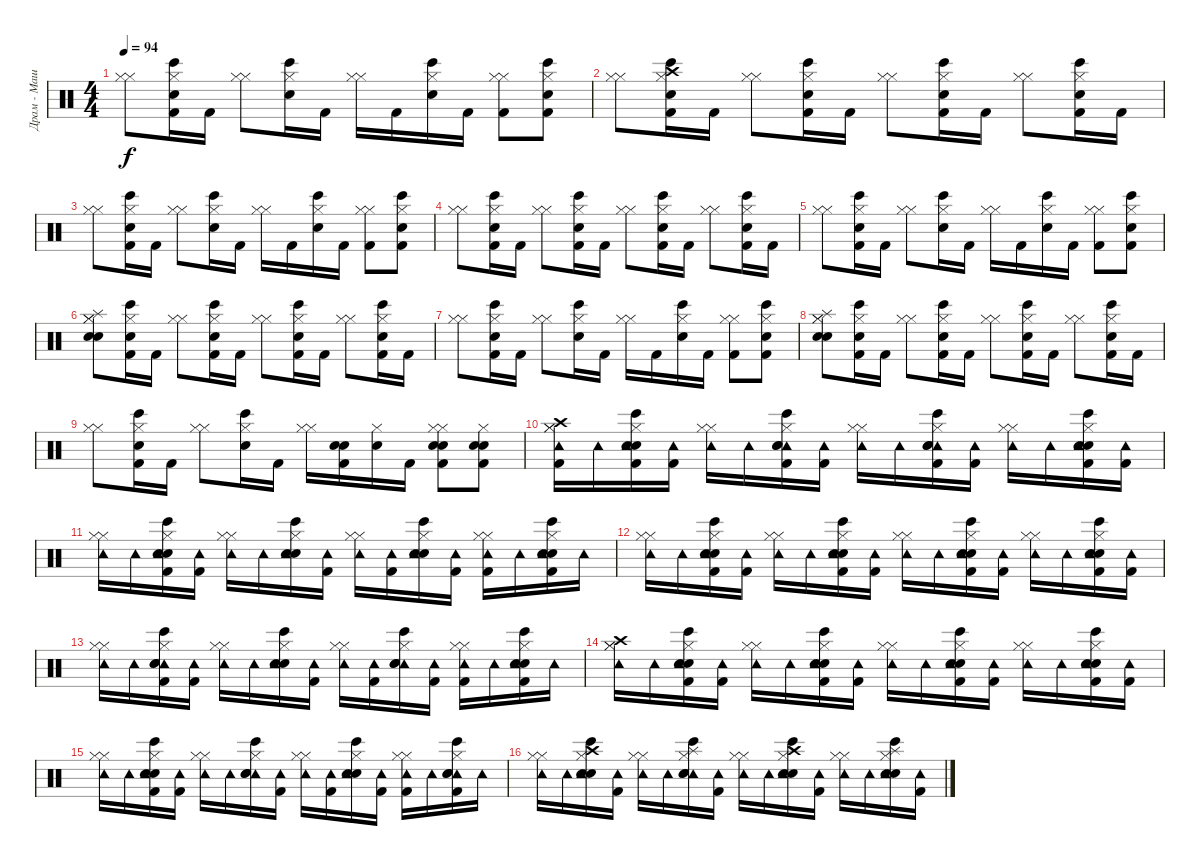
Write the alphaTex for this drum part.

\track ("Драм - Машина" "Драм - Маш") {instrument percussion}
\staff {score}
\articulation defaults
\ts (4 4)
\tempo 94
\clef neutral
\ks c
("Hi-Hat (closed)" "Hi-Hat (closed)").8{dy f} ("Hi-Hat (closed)" "Bongo High (hit)" "Snare (hit) 2" "Kick (hit) 2").16 "Kick (hit) 2".16 ("Hi-Hat (closed)" "Hi-Hat (closed)").8 ("Hi-Hat (closed)" "Snare (hit) 2" "Bongo High (hit)").16 "Kick (hit) 2".16 ("Hi-Hat (closed)" "Hi-Hat (closed)").16 "Kick (hit) 2".16 ("Snare (hit) 2" "Bongo High (hit)" "Hi-Hat (closed)").16 "Kick (hit) 2".16 ("Hi-Hat (closed)" "Hi-Hat (closed)" "Kick (hit) 2").8 ("Bongo High (hit)" "Snare (hit) 2" "Hi-Hat (closed)" "Kick (hit) 2").8 |
("Hi-Hat (closed)" "Hi-Hat (closed)").8 ("Snare (hit) 2" "Bongo High (hit)" "Hi-Hat (closed)" "Crash high (hit)" "Kick (hit) 2").16 "Kick (hit) 2".16 ("Hi-Hat (closed)" "Hi-Hat (closed)").8 ("Hi-Hat (closed)" "Bongo High (hit)" "Snare (hit) 2" "Kick (hit) 2").16 "Kick (hit) 2".16 ("Hi-Hat (closed)" "Hi-Hat (closed)").8 ("Bongo High (hit)" "Hi-Hat (closed)" "Snare (hit) 2" "Kick (hit) 2").16 "Kick (hit) 2".16 ("Hi-Hat (closed)" "Hi-Hat (closed)").8 ("Bongo High (hit)" "Snare (hit) 2" "Hi-Hat (closed)" "Kick (hit) 2").16 "Kick (hit) 2".16 |
("Hi-Hat (closed)" "Hi-Hat (closed)").8 ("Snare (hit) 2" "Hi-Hat (closed)" "Bongo High (hit)" "Kick (hit) 2").16 "Kick (hit) 2".16 ("Hi-Hat (closed)" "Hi-Hat (closed)").8 ("Bongo High (hit)" "Snare (hit) 2" "Hi-Hat (closed)").16 "Kick (hit) 2".16 ("Hi-Hat (closed)" "Hi-Hat (closed)").16 "Kick (hit) 2".16 ("Snare (hit) 2" "Bongo High (hit)" "Hi-Hat (closed)").16 "Kick (hit) 2".16 ("Hi-Hat (closed)" "Hi-Hat (closed)" "Kick (hit) 2").8 ("Snare (hit) 2" "Bongo High (hit)" "Hi-Hat (closed)" "Kick (hit) 2").8 |
("Hi-Hat (closed)" "Hi-Hat (closed)").8 ("Hi-Hat (closed)" "Snare (hit) 2" "Bongo High (hit)" "Kick (hit) 2").16 "Kick (hit) 2".16 ("Hi-Hat (closed)" "Hi-Hat (closed)").8 ("Snare (hit) 2" "Hi-Hat (closed)" "Bongo High (hit)" "Kick (hit) 2").16 "Kick (hit) 2".16 ("Hi-Hat (closed)" "Hi-Hat (closed)").8 ("Bongo High (hit)" "Snare (hit) 2" "Hi-Hat (closed)" "Kick (hit) 2").16 "Kick (hit) 2".16 ("Hi-Hat (closed)" "Hi-Hat (closed)").8 ("Hi-Hat (closed)" "Bongo High (hit)" "Snare (hit) 2" "Kick (hit) 2").16 "Kick (hit) 2".16 |
("Hi-Hat (closed)" "Hi-Hat (closed)").8 ("Hi-Hat (closed)" "Bongo High (hit)" "Snare (hit) 2" "Kick (hit) 2").16 "Kick (hit) 2".16 ("Hi-Hat (closed)" "Hi-Hat (closed)").8 ("Bongo High (hit)" "Hi-Hat (closed)" "Snare (hit) 2").16 "Kick (hit) 2".16 ("Hi-Hat (closed)" "Hi-Hat (closed)").16 "Kick (hit) 2".16 ("Snare (hit) 2" "Bongo High (hit)" "Hi-Hat (closed)").16 "Kick (hit) 2".16 ("Hi-Hat (closed)" "Hi-Hat (closed)" "Kick (hit) 2").8 ("Snare (hit) 2" "Bongo High (hit)" "Hi-Hat (closed)" "Kick (hit) 2").8 |
("Snare (hit) 2" "Hi-Hat (closed)" "Electric Snare (hit)" "Hi-Hat (closed)" "Splash (hit)").8 ("Hi-Hat (closed)" "Bongo High (hit)" "Snare (hit) 2" "Kick (hit) 2").16 "Kick (hit) 2".16 ("Hi-Hat (closed)" "Hi-Hat (closed)").8 ("Hi-Hat (closed)" "Bongo High (hit)" "Snare (hit) 2" "Kick (hit) 2").16 "Kick (hit) 2".16 ("Hi-Hat (closed)" "Hi-Hat (closed)").8 ("Snare (hit) 2" "Bongo High (hit)" "Hi-Hat (closed)" "Kick (hit) 2").16 "Kick (hit) 2".16 ("Hi-Hat (closed)" "Hi-Hat (closed)").8 ("Hi-Hat (closed)" "Bongo High (hit)" "Snare (hit) 2" "Kick (hit) 2").16 "Kick (hit) 2".16 |
("Hi-Hat (closed)" "Hi-Hat (closed)").8 ("Snare (hit) 2" "Hi-Hat (closed)" "Bongo High (hit)" "Kick (hit) 2").16 "Kick (hit) 2".16 ("Hi-Hat (closed)" "Hi-Hat (closed)").8 ("Bongo High (hit)" "Snare (hit) 2" "Hi-Hat (closed)").16 "Kick (hit) 2".16 ("Hi-Hat (closed)" "Hi-Hat (closed)").16 "Kick (hit) 2".16 ("Bongo High (hit)" "Hi-Hat (closed)" "Snare (hit) 2").16 "Kick (hit) 2".16 ("Hi-Hat (closed)" "Hi-Hat (closed)" "Kick (hit) 2").8 ("Hi-Hat (closed)" "Snare (hit) 2" "Bongo High (hit)" "Kick (hit) 2").8 |
("Splash (hit)" "Electric Snare (hit)" "Hi-Hat (closed)" "Snare (hit) 2" "Hi-Hat (closed)").8 ("Hi-Hat (closed)" "Bongo High (hit)" "Snare (hit) 2" "Kick (hit) 2").16 "Kick (hit) 2".16 ("Hi-Hat (closed)" "Hi-Hat (closed)").8 ("Hi-Hat (closed)" "Snare (hit) 2" "Bongo High (hit)" "Kick (hit) 2").16 "Kick (hit) 2".16 ("Hi-Hat (closed)" "Hi-Hat (closed)").8 ("Hi-Hat (closed)" "Bongo High (hit)" "Snare (hit) 2" "Kick (hit) 2").16 "Kick (hit) 2".16 ("Hi-Hat (closed)" "Hi-Hat (closed)").8 ("Hi-Hat (closed)" "Snare (hit) 2" "Bongo High (hit)" "Kick (hit) 2").16 "Kick (hit) 2".16 |
("Hi-Hat (closed)" "Hi-Hat (closed)").8 ("Bongo High (hit)" "Hi-Hat (closed)" "Snare (hit) 2" "Kick (hit) 2").16 "Kick (hit) 2".16 ("Hi-Hat (closed)" "Hi-Hat (closed)").8 ("Snare (hit) 2" "Bongo High (hit)" "Hi-Hat (closed)").16 "Kick (hit) 2".16 ("Hi-Hat (closed)" "Hi-Hat (closed)").16 ("Snare (hit) 2" "Electric Snare (hit)" "Kick (hit) 2").16 ("Hi-Hat (closed)" "Snare (hit) 2").16 "Kick (hit) 2".16 ("Snare (hit) 2" "Hi-Hat (closed)" "Hi-Hat (closed)" "Electric Snare (hit)" "Kick (hit) 2").8 ("Hi-Hat (closed)" "Snare (hit) 2" "Electric Snare (hit)" "Kick (hit) 2").8 |
("Tambourine (hit)" "Hi-Hat (closed)" "Crash high (hit)" "Hi-Hat (closed)" "Kick (hit) 2").16 "Tambourine (hit)".16 ("Electric Snare (hit)" "Bongo High (hit)" "Snare (hit) 2" "Tambourine (hit)" "Hi-Hat (closed)" "Kick (hit) 2").16 ("Tambourine (hit)" "Kick (hit) 2").16 ("Hi-Hat (closed)" "Tambourine (hit)" "Hi-Hat (closed)").16 "Tambourine (hit)".16 ("Tambourine (hit)" "Electric Snare (hit)" "Snare (hit) 2" "Bongo High (hit)" "Hi-Hat (closed)" "Kick (hit) 2").16 ("Tambourine (hit)" "Kick (hit) 2").16 ("Hi-Hat (closed)" "Tambourine (hit)" "Hi-Hat (closed)").16 "Tambourine (hit)".16 ("Hi-Hat (closed)" "Tambourine (hit)" "Snare (hit) 2" "Electric Snare (hit)" "Bongo High (hit)" "Kick (hit) 2").16 ("Tambourine (hit)" "Kick (hit) 2").16 ("Hi-Hat (closed)" "Tambourine (hit)" "Hi-Hat (closed)").16 "Tambourine (hit)".16 ("Electric Snare (hit)" "Snare (hit) 2" "Bongo High (hit)" "Tambourine (hit)" "Hi-Hat (closed)" "Kick (hit) 2").16 ("Tambourine (hit)" "Kick (hit) 2").16 |
("Hi-Hat (closed)" "Hi-Hat (closed)" "Tambourine (hit)").16 "Tambourine (hit)".16 ("Hi-Hat (closed)" "Snare (hit) 2" "Bongo High (hit)" "Tambourine (hit)" "Electric Snare (hit)" "Kick (hit) 2").16 ("Tambourine (hit)" "Kick (hit) 2").16 ("Hi-Hat (closed)" "Tambourine (hit)" "Hi-Hat (closed)").16 "Tambourine (hit)".16 ("Hi-Hat (closed)" "Bongo High (hit)" "Electric Snare (hit)" "Tambourine (hit)" "Snare (hit) 2").16 ("Tambourine (hit)" "Kick (hit) 2").16 ("Tambourine (hit)" "Hi-Hat (closed)" "Hi-Hat (closed)").16 ("Tambourine (hit)" "Kick (hit) 2").16 ("Snare (hit) 2" "Hi-Hat (closed)" "Tambourine (hit)" "Bongo High (hit)" "Electric Snare (hit)").16 ("Tambourine (hit)" "Kick (hit) 2").16 ("Tambourine (hit)" "Hi-Hat (closed)" "Hi-Hat (closed)" "Kick (hit) 2").16 "Tambourine (hit)".16 ("Electric Snare (hit)" "Snare (hit) 2" "Tambourine (hit)" "Bongo High (hit)" "Hi-Hat (closed)" "Kick (hit) 2").16 "Tambourine (hit)".16 |
("Hi-Hat (closed)" "Tambourine (hit)" "Hi-Hat (closed)").16 "Tambourine (hit)".16 ("Electric Snare (hit)" "Bongo High (hit)" "Tambourine (hit)" "Snare (hit) 2" "Hi-Hat (closed)" "Kick (hit) 2").16 ("Tambourine (hit)" "Kick (hit) 2").16 ("Hi-Hat (closed)" "Tambourine (hit)" "Hi-Hat (closed)").16 "Tambourine (hit)".16 ("Electric Snare (hit)" "Snare (hit) 2" "Hi-Hat (closed)" "Bongo High (hit)" "Tambourine (hit)" "Kick (hit) 2").16 ("Tambourine (hit)" "Kick (hit) 2").16 ("Hi-Hat (closed)" "Tambourine (hit)" "Hi-Hat (closed)").16 "Tambourine (hit)".16 ("Snare (hit) 2" "Electric Snare (hit)" "Tambourine (hit)" "Bongo High (hit)" "Hi-Hat (closed)" "Kick (hit) 2").16 ("Tambourine (hit)" "Kick (hit) 2").16 ("Hi-Hat (closed)" "Tambourine (hit)" "Hi-Hat (closed)").16 "Tambourine (hit)".16 ("Hi-Hat (closed)" "Snare (hit) 2" "Bongo High (hit)" "Electric Snare (hit)" "Tambourine (hit)" "Kick (hit) 2").16 ("Tambourine (hit)" "Kick (hit) 2").16 |
("Hi-Hat (closed)" "Hi-Hat (closed)" "Tambourine (hit)").16 "Tambourine (hit)".16 ("Hi-Hat (closed)" "Bongo High (hit)" "Tambourine (hit)" "Electric Snare (hit)" "Snare (hit) 2" "Kick (hit) 2").16 ("Tambourine (hit)" "Kick (hit) 2").16 ("Tambourine (hit)" "Hi-Hat (closed)" "Hi-Hat (closed)").16 "Tambourine (hit)".16 ("Snare (hit) 2" "Electric Snare (hit)" "Tambourine (hit)" "Hi-Hat (closed)" "Bongo High (hit)").16 ("Tambourine (hit)" "Kick (hit) 2").16 ("Tambourine (hit)" "Hi-Hat (closed)" "Hi-Hat (closed)").16 ("Tambourine (hit)" "Kick (hit) 2").16 ("Bongo High (hit)" "Tambourine (hit)" "Snare (hit) 2" "Electric Snare (hit)" "Hi-Hat (closed)").16 ("Tambourine (hit)" "Kick (hit) 2").16 ("Hi-Hat (closed)" "Tambourine (hit)" "Hi-Hat (closed)" "Kick (hit) 2").16 "Tambourine (hit)".16 ("Snare (hit) 2" "Hi-Hat (closed)" "Tambourine (hit)" "Bongo High (hit)" "Electric Snare (hit)" "Kick (hit) 2").16 "Tambourine (hit)".16 |
("Hi-Hat (closed)" "Hi-Hat (closed)" "Crash high (hit)" "Tambourine (hit)").16 "Tambourine (hit)".16 ("Electric Snare (hit)" "Bongo High (hit)" "Tambourine (hit)" "Snare (hit) 2" "Hi-Hat (closed)" "Kick (hit) 2").16 ("Tambourine (hit)" "Kick (hit) 2").16 ("Hi-Hat (closed)" "Hi-Hat (closed)" "Tambourine (hit)").16 "Tambourine (hit)".16 ("Snare (hit) 2" "Electric Snare (hit)" "Tambourine (hit)" "Bongo High (hit)" "Hi-Hat (closed)" "Kick (hit) 2").16 ("Tambourine (hit)" "Kick (hit) 2").16 ("Hi-Hat (closed)" "Tambourine (hit)" "Hi-Hat (closed)").16 "Tambourine (hit)".16 ("Electric Snare (hit)" "Snare (hit) 2" "Hi-Hat (closed)" "Tambourine (hit)" "Bongo High (hit)" "Kick (hit) 2").16 ("Tambourine (hit)" "Kick (hit) 2").16 ("Hi-Hat (closed)" "Tambourine (hit)" "Hi-Hat (closed)").16 "Tambourine (hit)".16 ("Hi-Hat (closed)" "Snare (hit) 2" "Electric Snare (hit)" "Bongo High (hit)" "Tambourine (hit)" "Kick (hit) 2").16 ("Tambourine (hit)" "Kick (hit) 2").16 |
("Hi-Hat (closed)" "Hi-Hat (closed)" "Tambourine (hit)").16 "Tambourine (hit)".16 ("Electric Snare (hit)" "Bongo High (hit)" "Hi-Hat (closed)" "Tambourine (hit)" "Snare (hit) 2" "Kick (hit) 2").16 ("Tambourine (hit)" "Kick (hit) 2").16 ("Hi-Hat (closed)" "Hi-Hat (closed)" "Tambourine (hit)").16 "Tambourine (hit)".16 ("Hi-Hat (closed)" "Bongo High (hit)" "Tambourine (hit)" "Electric Snare (hit)" "Snare (hit) 2").16 ("Tambourine (hit)" "Kick (hit) 2").16 ("Hi-Hat (closed)" "Tambourine (hit)" "Hi-Hat (closed)").16 ("Tambourine (hit)" "Kick (hit) 2").16 ("Electric Snare (hit)" "Bongo High (hit)" "Tambourine (hit)" "Snare (hit) 2" "Hi-Hat (closed)").16 ("Tambourine (hit)" "Kick (hit) 2").16 ("Tambourine (hit)" "Hi-Hat (closed)" "Hi-Hat (closed)" "Kick (hit) 2").16 "Tambourine (hit)".16 ("Tambourine (hit)" "Hi-Hat (closed)" "Bongo High (hit)" "Electric Snare (hit)" "Snare (hit) 2" "Kick (hit) 2").16 "Tambourine (hit)".16 |
("Hi-Hat (closed)" "Tambourine (hit)" "Hi-Hat (closed)").16 "Tambourine (hit)".16 ("Electric Snare (hit)" "Hi-Hat (closed)" "Snare (hit) 2" "Crash high (hit)" "Bongo High (hit)" "Tambourine (hit)").16 ("Tambourine (hit)" "Kick (hit) 2").16 ("Hi-Hat (closed)" "Tambourine (hit)" "Hi-Hat (closed)").16 "Tambourine (hit)".16 ("Bongo High (hit)" "Tambourine (hit)" "Splash (hit)" "Electric Snare (hit)" "Snare (hit) 2" "Hi-Hat (closed)").16 ("Tambourine (hit)" "Kick (hit) 2").16 ("Hi-Hat (closed)" "Hi-Hat (closed)" "Tambourine (hit)").16 "Tambourine (hit)".16 ("Bongo High (hit)" "Snare (hit) 2" "Electric Snare (hit)" "Crash high (hit)" "Tambourine (hit)" "Hi-Hat (closed)").16 ("Tambourine (hit)" "Kick (hit) 2").16 ("Tambourine (hit)" "Hi-Hat (closed)" "Hi-Hat (closed)").16 "Tambourine (hit)".16 ("Snare (hit) 2" "Bongo High (hit)" "Electric Snare (hit)" "Splash (hit)" "Hi-Hat (closed)" "Tambourine (hit)").16 ("Tambourine (hit)" "Kick (hit) 2").16
